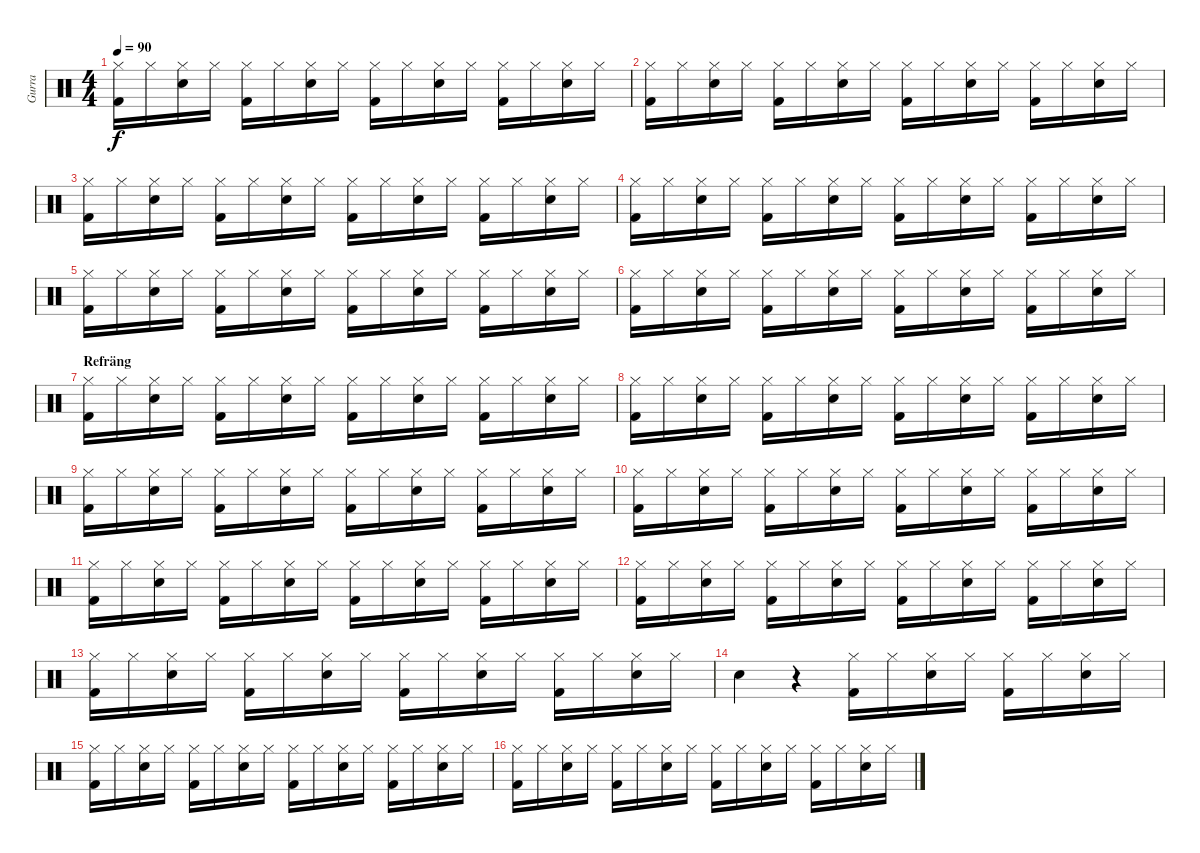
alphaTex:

\track ("Gurra" "Gurra") {instrument percussion}
\staff {score}
\articulation defaults
\ts (4 4)
\tempo 90
\clef neutral
\ks c
("Kick (hit) 2" "Hi-Hat (closed)").16{dy f} "Hi-Hat (closed)".16 ("Snare (hit) 2" "Hi-Hat (closed)").16 "Hi-Hat (closed)".16 ("Kick (hit) 2" "Hi-Hat (closed)").16 "Hi-Hat (closed)".16 ("Snare (hit) 2" "Hi-Hat (closed)").16 "Hi-Hat (closed)".16 ("Kick (hit) 2" "Hi-Hat (closed)").16 "Hi-Hat (closed)".16 ("Snare (hit) 2" "Hi-Hat (closed)").16 "Hi-Hat (closed)".16 ("Kick (hit) 2" "Hi-Hat (closed)").16 "Hi-Hat (closed)".16 ("Snare (hit) 2" "Hi-Hat (closed)").16 "Hi-Hat (closed)".16 |
("Kick (hit) 2" "Hi-Hat (closed)").16 "Hi-Hat (closed)".16 ("Snare (hit) 2" "Hi-Hat (closed)").16 "Hi-Hat (closed)".16 ("Kick (hit) 2" "Hi-Hat (closed)").16 "Hi-Hat (closed)".16 ("Snare (hit) 2" "Hi-Hat (closed)").16 "Hi-Hat (closed)".16 ("Kick (hit) 2" "Hi-Hat (closed)").16 "Hi-Hat (closed)".16 ("Snare (hit) 2" "Hi-Hat (closed)").16 "Hi-Hat (closed)".16 ("Kick (hit) 2" "Hi-Hat (closed)").16 "Hi-Hat (closed)".16 ("Snare (hit) 2" "Hi-Hat (closed)").16 "Hi-Hat (closed)".16 |
("Kick (hit) 2" "Hi-Hat (closed)").16 "Hi-Hat (closed)".16 ("Snare (hit) 2" "Hi-Hat (closed)").16 "Hi-Hat (closed)".16 ("Kick (hit) 2" "Hi-Hat (closed)").16 "Hi-Hat (closed)".16 ("Snare (hit) 2" "Hi-Hat (closed)").16 "Hi-Hat (closed)".16 ("Kick (hit) 2" "Hi-Hat (closed)").16 "Hi-Hat (closed)".16 ("Snare (hit) 2" "Hi-Hat (closed)").16 "Hi-Hat (closed)".16 ("Kick (hit) 2" "Hi-Hat (closed)").16 "Hi-Hat (closed)".16 ("Snare (hit) 2" "Hi-Hat (closed)").16 "Hi-Hat (closed)".16 |
("Kick (hit) 2" "Hi-Hat (closed)").16 "Hi-Hat (closed)".16 ("Snare (hit) 2" "Hi-Hat (closed)").16 "Hi-Hat (closed)".16 ("Kick (hit) 2" "Hi-Hat (closed)").16 "Hi-Hat (closed)".16 ("Snare (hit) 2" "Hi-Hat (closed)").16 "Hi-Hat (closed)".16 ("Kick (hit) 2" "Hi-Hat (closed)").16 "Hi-Hat (closed)".16 ("Snare (hit) 2" "Hi-Hat (closed)").16 "Hi-Hat (closed)".16 ("Kick (hit) 2" "Hi-Hat (closed)").16 "Hi-Hat (closed)".16 ("Snare (hit) 2" "Hi-Hat (closed)").16 "Hi-Hat (closed)".16 |
("Kick (hit) 2" "Hi-Hat (closed)").16 "Hi-Hat (closed)".16 ("Snare (hit) 2" "Hi-Hat (closed)").16 "Hi-Hat (closed)".16 ("Kick (hit) 2" "Hi-Hat (closed)").16 "Hi-Hat (closed)".16 ("Snare (hit) 2" "Hi-Hat (closed)").16 "Hi-Hat (closed)".16 ("Kick (hit) 2" "Hi-Hat (closed)").16 "Hi-Hat (closed)".16 ("Snare (hit) 2" "Hi-Hat (closed)").16 "Hi-Hat (closed)".16 ("Kick (hit) 2" "Hi-Hat (closed)").16 "Hi-Hat (closed)".16 ("Snare (hit) 2" "Hi-Hat (closed)").16 "Hi-Hat (closed)".16 |
("Kick (hit) 2" "Hi-Hat (closed)").16 "Hi-Hat (closed)".16 ("Snare (hit) 2" "Hi-Hat (closed)").16 "Hi-Hat (closed)".16 ("Kick (hit) 2" "Hi-Hat (closed)").16 "Hi-Hat (closed)".16 ("Snare (hit) 2" "Hi-Hat (closed)").16 "Hi-Hat (closed)".16 ("Kick (hit) 2" "Hi-Hat (closed)").16 "Hi-Hat (closed)".16 ("Snare (hit) 2" "Hi-Hat (closed)").16 "Hi-Hat (closed)".16 ("Kick (hit) 2" "Hi-Hat (closed)").16 "Hi-Hat (closed)".16 ("Snare (hit) 2" "Hi-Hat (closed)").16 "Hi-Hat (closed)".16 |
\section ("" "Refräng")
("Kick (hit) 2" "Hi-Hat (closed)").16 "Hi-Hat (closed)".16 ("Snare (hit) 2" "Hi-Hat (closed)").16 "Hi-Hat (closed)".16 ("Kick (hit) 2" "Hi-Hat (closed)").16 "Hi-Hat (closed)".16 ("Snare (hit) 2" "Hi-Hat (closed)").16 "Hi-Hat (closed)".16 ("Kick (hit) 2" "Hi-Hat (closed)").16 "Hi-Hat (closed)".16 ("Snare (hit) 2" "Hi-Hat (closed)").16 "Hi-Hat (closed)".16 ("Kick (hit) 2" "Hi-Hat (closed)").16 "Hi-Hat (closed)".16 ("Snare (hit) 2" "Hi-Hat (closed)").16 "Hi-Hat (closed)".16 |
("Kick (hit) 2" "Hi-Hat (closed)").16 "Hi-Hat (closed)".16 ("Snare (hit) 2" "Hi-Hat (closed)").16 "Hi-Hat (closed)".16 ("Kick (hit) 2" "Hi-Hat (closed)").16 "Hi-Hat (closed)".16 ("Snare (hit) 2" "Hi-Hat (closed)").16 "Hi-Hat (closed)".16 ("Kick (hit) 2" "Hi-Hat (closed)").16 "Hi-Hat (closed)".16 ("Snare (hit) 2" "Hi-Hat (closed)").16 "Hi-Hat (closed)".16 ("Kick (hit) 2" "Hi-Hat (closed)").16 "Hi-Hat (closed)".16 ("Snare (hit) 2" "Hi-Hat (closed)").16 "Hi-Hat (closed)".16 |
("Kick (hit) 2" "Hi-Hat (closed)").16 "Hi-Hat (closed)".16 ("Snare (hit) 2" "Hi-Hat (closed)").16 "Hi-Hat (closed)".16 ("Kick (hit) 2" "Hi-Hat (closed)").16 "Hi-Hat (closed)".16 ("Snare (hit) 2" "Hi-Hat (closed)").16 "Hi-Hat (closed)".16 ("Kick (hit) 2" "Hi-Hat (closed)").16 "Hi-Hat (closed)".16 ("Snare (hit) 2" "Hi-Hat (closed)").16 "Hi-Hat (closed)".16 ("Kick (hit) 2" "Hi-Hat (closed)").16 "Hi-Hat (closed)".16 ("Snare (hit) 2" "Hi-Hat (closed)").16 "Hi-Hat (closed)".16 |
("Kick (hit) 2" "Hi-Hat (closed)").16 "Hi-Hat (closed)".16 ("Snare (hit) 2" "Hi-Hat (closed)").16 "Hi-Hat (closed)".16 ("Kick (hit) 2" "Hi-Hat (closed)").16 "Hi-Hat (closed)".16 ("Snare (hit) 2" "Hi-Hat (closed)").16 "Hi-Hat (closed)".16 ("Kick (hit) 2" "Hi-Hat (closed)").16 "Hi-Hat (closed)".16 ("Snare (hit) 2" "Hi-Hat (closed)").16 "Hi-Hat (closed)".16 ("Kick (hit) 2" "Hi-Hat (closed)").16 "Hi-Hat (closed)".16 ("Snare (hit) 2" "Hi-Hat (closed)").16 "Hi-Hat (closed)".16 |
("Kick (hit) 2" "Hi-Hat (closed)").16 "Hi-Hat (closed)".16 ("Snare (hit) 2" "Hi-Hat (closed)").16 "Hi-Hat (closed)".16 ("Kick (hit) 2" "Hi-Hat (closed)").16 "Hi-Hat (closed)".16 ("Snare (hit) 2" "Hi-Hat (closed)").16 "Hi-Hat (closed)".16 ("Kick (hit) 2" "Hi-Hat (closed)").16 "Hi-Hat (closed)".16 ("Snare (hit) 2" "Hi-Hat (closed)").16 "Hi-Hat (closed)".16 ("Kick (hit) 2" "Hi-Hat (closed)").16 "Hi-Hat (closed)".16 ("Snare (hit) 2" "Hi-Hat (closed)").16 "Hi-Hat (closed)".16 |
("Kick (hit) 2" "Hi-Hat (closed)").16 "Hi-Hat (closed)".16 ("Snare (hit) 2" "Hi-Hat (closed)").16 "Hi-Hat (closed)".16 ("Kick (hit) 2" "Hi-Hat (closed)").16 "Hi-Hat (closed)".16 ("Snare (hit) 2" "Hi-Hat (closed)").16 "Hi-Hat (closed)".16 ("Kick (hit) 2" "Hi-Hat (closed)").16 "Hi-Hat (closed)".16 ("Snare (hit) 2" "Hi-Hat (closed)").16 "Hi-Hat (closed)".16 ("Kick (hit) 2" "Hi-Hat (closed)").16 "Hi-Hat (closed)".16 ("Snare (hit) 2" "Hi-Hat (closed)").16 "Hi-Hat (closed)".16 |
("Kick (hit) 2" "Hi-Hat (closed)").16 "Hi-Hat (closed)".16 ("Snare (hit) 2" "Hi-Hat (closed)").16 "Hi-Hat (closed)".16 ("Kick (hit) 2" "Hi-Hat (closed)").16 "Hi-Hat (closed)".16 ("Snare (hit) 2" "Hi-Hat (closed)").16 "Hi-Hat (closed)".16 ("Kick (hit) 2" "Hi-Hat (closed)").16 "Hi-Hat (closed)".16 ("Snare (hit) 2" "Hi-Hat (closed)").16 "Hi-Hat (closed)".16 ("Kick (hit) 2" "Hi-Hat (closed)").16 "Hi-Hat (closed)".16 ("Snare (hit) 2" "Hi-Hat (closed)").16 "Hi-Hat (closed)".16 |
"Snare (hit) 2".4 r.4 ("Kick (hit) 2" "Hi-Hat (closed)").16 "Hi-Hat (closed)".16 ("Snare (hit) 2" "Hi-Hat (closed)").16 "Hi-Hat (closed)".16 ("Kick (hit) 2" "Hi-Hat (closed)").16 "Hi-Hat (closed)".16 ("Snare (hit) 2" "Hi-Hat (closed)").16 "Hi-Hat (closed)".16 |
("Kick (hit) 2" "Hi-Hat (closed)").16 "Hi-Hat (closed)".16 ("Snare (hit) 2" "Hi-Hat (closed)").16 "Hi-Hat (closed)".16 ("Kick (hit) 2" "Hi-Hat (closed)").16 "Hi-Hat (closed)".16 ("Snare (hit) 2" "Hi-Hat (closed)").16 "Hi-Hat (closed)".16 ("Kick (hit) 2" "Hi-Hat (closed)").16 "Hi-Hat (closed)".16 ("Snare (hit) 2" "Hi-Hat (closed)").16 "Hi-Hat (closed)".16 ("Kick (hit) 2" "Hi-Hat (closed)").16 "Hi-Hat (closed)".16 ("Snare (hit) 2" "Hi-Hat (closed)").16 "Hi-Hat (closed)".16 |
("Kick (hit) 2" "Hi-Hat (closed)").16 "Hi-Hat (closed)".16 ("Snare (hit) 2" "Hi-Hat (closed)").16 "Hi-Hat (closed)".16 ("Kick (hit) 2" "Hi-Hat (closed)").16 "Hi-Hat (closed)".16 ("Snare (hit) 2" "Hi-Hat (closed)").16 "Hi-Hat (closed)".16 ("Kick (hit) 2" "Hi-Hat (closed)").16 "Hi-Hat (closed)".16 ("Snare (hit) 2" "Hi-Hat (closed)").16 "Hi-Hat (closed)".16 ("Kick (hit) 2" "Hi-Hat (closed)").16 "Hi-Hat (closed)".16 ("Snare (hit) 2" "Hi-Hat (closed)").16 "Hi-Hat (closed)".16
